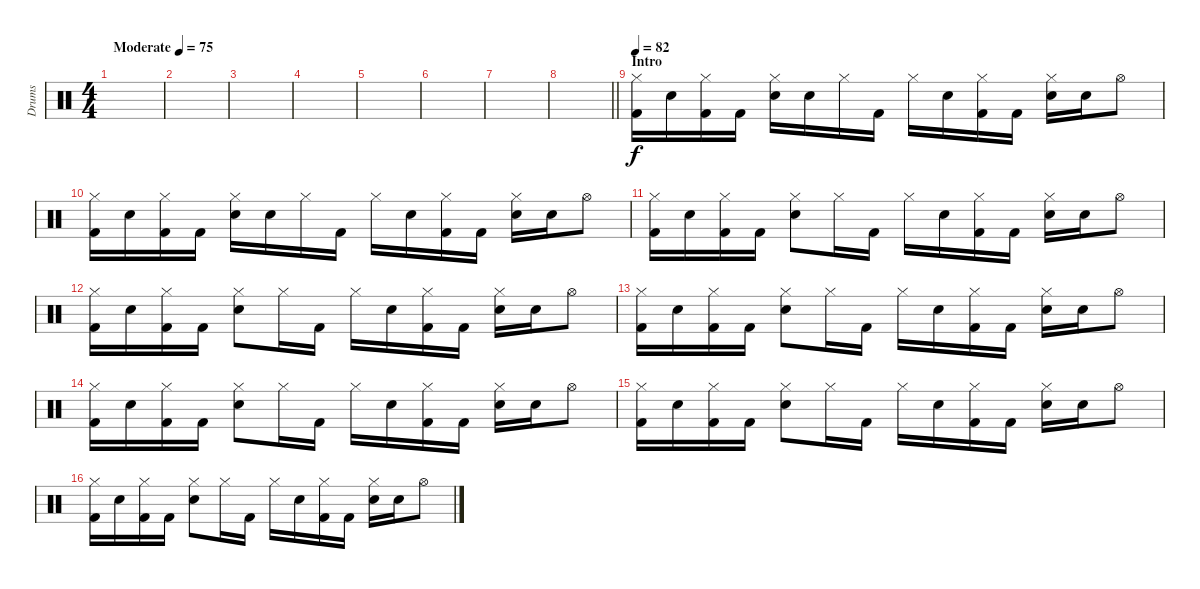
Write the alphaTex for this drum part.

\track ("Drums" "Drums") {instrument percussion}
\staff {score}
\articulation defaults
\ts (4 4)
\tempo (75 "Moderate")
\clef neutral
\ks c
|
|
|
|
|
|
|
\barLineRight lightlight
|
\section ("" "Intro")
\tempo 82
("Hi-Hat (closed)" "Kick (hit) 2").16 "Snare (hit) 2".16 ("Hi-Hat (closed)" "Kick (hit) 2").16 "Kick (hit) 2".16 ("Hi-Hat (closed)" "Snare (hit) 2").16 "Snare (hit) 2".16 "Hi-Hat (closed)".16 "Kick (hit) 2".16 "Hi-Hat (closed)".16 "Snare (hit) 2".16 ("Hi-Hat (closed)" "Kick (hit) 2").16 "Kick (hit) 2".16 ("Hi-Hat (closed)" "Snare (hit) 2").16 "Snare (hit) 2".16 "Hi-Hat (open)".8 |
("Hi-Hat (closed)" "Kick (hit) 2").16 "Snare (hit) 2".16 ("Hi-Hat (closed)" "Kick (hit) 2").16 "Kick (hit) 2".16 ("Hi-Hat (closed)" "Snare (hit) 2").16 "Snare (hit) 2".16 "Hi-Hat (closed)".16 "Kick (hit) 2".16 "Hi-Hat (closed)".16 "Snare (hit) 2".16 ("Hi-Hat (closed)" "Kick (hit) 2").16 "Kick (hit) 2".16 ("Hi-Hat (closed)" "Snare (hit) 2").16 "Snare (hit) 2".16 "Hi-Hat (open)".8 |
("Hi-Hat (closed)" "Kick (hit) 2").16 "Snare (hit) 2".16 ("Hi-Hat (closed)" "Kick (hit) 2").16 "Kick (hit) 2".16 ("Hi-Hat (closed)" "Snare (hit) 2").8 "Hi-Hat (closed)".16 "Kick (hit) 2".16 "Hi-Hat (closed)".16 "Snare (hit) 2".16 ("Hi-Hat (closed)" "Kick (hit) 2").16 "Kick (hit) 2".16 ("Hi-Hat (closed)" "Snare (hit) 2").16 "Snare (hit) 2".16 "Hi-Hat (open)".8 |
("Hi-Hat (closed)" "Kick (hit) 2").16 "Snare (hit) 2".16 ("Hi-Hat (closed)" "Kick (hit) 2").16 "Kick (hit) 2".16 ("Hi-Hat (closed)" "Snare (hit) 2").8 "Hi-Hat (closed)".16 "Kick (hit) 2".16 "Hi-Hat (closed)".16 "Snare (hit) 2".16 ("Hi-Hat (closed)" "Kick (hit) 2").16 "Kick (hit) 2".16 ("Hi-Hat (closed)" "Snare (hit) 2").16 "Snare (hit) 2".16 "Hi-Hat (open)".8 |
("Hi-Hat (closed)" "Kick (hit) 2").16 "Snare (hit) 2".16 ("Hi-Hat (closed)" "Kick (hit) 2").16 "Kick (hit) 2".16 ("Hi-Hat (closed)" "Snare (hit) 2").8 "Hi-Hat (closed)".16 "Kick (hit) 2".16 "Hi-Hat (closed)".16 "Snare (hit) 2".16 ("Hi-Hat (closed)" "Kick (hit) 2").16 "Kick (hit) 2".16 ("Hi-Hat (closed)" "Snare (hit) 2").16 "Snare (hit) 2".16 "Hi-Hat (open)".8 |
("Hi-Hat (closed)" "Kick (hit) 2").16 "Snare (hit) 2".16 ("Hi-Hat (closed)" "Kick (hit) 2").16 "Kick (hit) 2".16 ("Hi-Hat (closed)" "Snare (hit) 2").8 "Hi-Hat (closed)".16 "Kick (hit) 2".16 "Hi-Hat (closed)".16 "Snare (hit) 2".16 ("Hi-Hat (closed)" "Kick (hit) 2").16 "Kick (hit) 2".16 ("Hi-Hat (closed)" "Snare (hit) 2").16 "Snare (hit) 2".16 "Hi-Hat (open)".8 |
("Hi-Hat (closed)" "Kick (hit) 2").16 "Snare (hit) 2".16 ("Hi-Hat (closed)" "Kick (hit) 2").16 "Kick (hit) 2".16 ("Hi-Hat (closed)" "Snare (hit) 2").8 "Hi-Hat (closed)".16 "Kick (hit) 2".16 "Hi-Hat (closed)".16 "Snare (hit) 2".16 ("Hi-Hat (closed)" "Kick (hit) 2").16 "Kick (hit) 2".16 ("Hi-Hat (closed)" "Snare (hit) 2").16 "Snare (hit) 2".16 "Hi-Hat (open)".8 |
("Hi-Hat (closed)" "Kick (hit) 2").16 "Snare (hit) 2".16 ("Hi-Hat (closed)" "Kick (hit) 2").16 "Kick (hit) 2".16 ("Hi-Hat (closed)" "Snare (hit) 2").8 "Hi-Hat (closed)".16 "Kick (hit) 2".16 "Hi-Hat (closed)".16 "Snare (hit) 2".16 ("Hi-Hat (closed)" "Kick (hit) 2").16 "Kick (hit) 2".16 ("Hi-Hat (closed)" "Snare (hit) 2").16 "Snare (hit) 2".16 "Hi-Hat (open)".8
